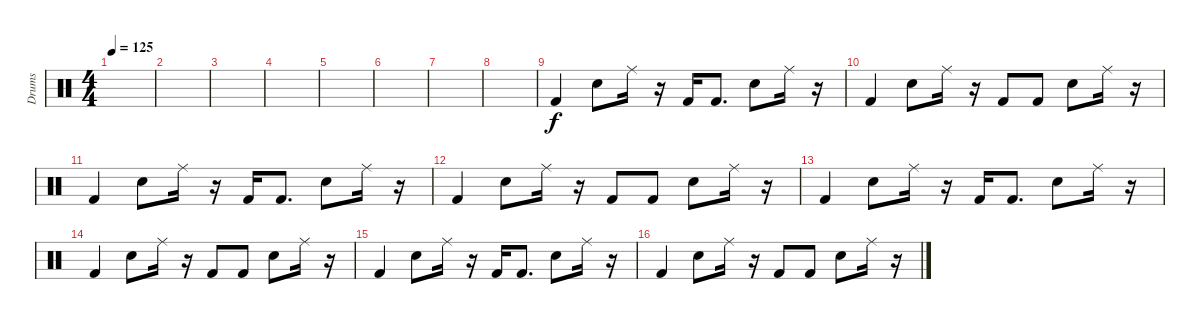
\track ("Drums" "Drums") {instrument percussion}
\staff {score}
\articulation defaults
\ts (4 4)
\tempo 125
\clef neutral
\ks c
|
|
|
|
|
|
|
|
"Kick (hit) 2".4 "Electric Snare (hit)".8 "Ride (middle)".16 r.16 "Kick (hit) 2".16 "Kick (hit) 2".8{d} "Electric Snare (hit)".8 "Ride (middle)".16 r.16 |
"Kick (hit) 2".4 "Electric Snare (hit)".8 "Ride (middle)".16 r.16 "Kick (hit) 2".8 "Kick (hit) 2".8 "Electric Snare (hit)".8 "Ride (middle)".16 r.16 |
"Kick (hit) 2".4 "Electric Snare (hit)".8 "Ride (middle)".16 r.16 "Kick (hit) 2".16 "Kick (hit) 2".8{d} "Electric Snare (hit)".8 "Ride (middle)".16 r.16 |
"Kick (hit) 2".4 "Electric Snare (hit)".8 "Ride (middle)".16 r.16 "Kick (hit) 2".8 "Kick (hit) 2".8 "Electric Snare (hit)".8 "Ride (middle)".16 r.16 |
"Kick (hit) 2".4 "Electric Snare (hit)".8 "Ride (middle)".16 r.16 "Kick (hit) 2".16 "Kick (hit) 2".8{d} "Electric Snare (hit)".8 "Ride (middle)".16 r.16 |
"Kick (hit) 2".4 "Electric Snare (hit)".8 "Ride (middle)".16 r.16 "Kick (hit) 2".8 "Kick (hit) 2".8 "Electric Snare (hit)".8 "Ride (middle)".16 r.16 |
"Kick (hit) 2".4 "Electric Snare (hit)".8 "Ride (middle)".16 r.16 "Kick (hit) 2".16 "Kick (hit) 2".8{d} "Electric Snare (hit)".8 "Ride (middle)".16 r.16 |
"Kick (hit) 2".4 "Electric Snare (hit)".8 "Ride (middle)".16 r.16 "Kick (hit) 2".8 "Kick (hit) 2".8 "Electric Snare (hit)".8 "Ride (middle)".16 r.16
